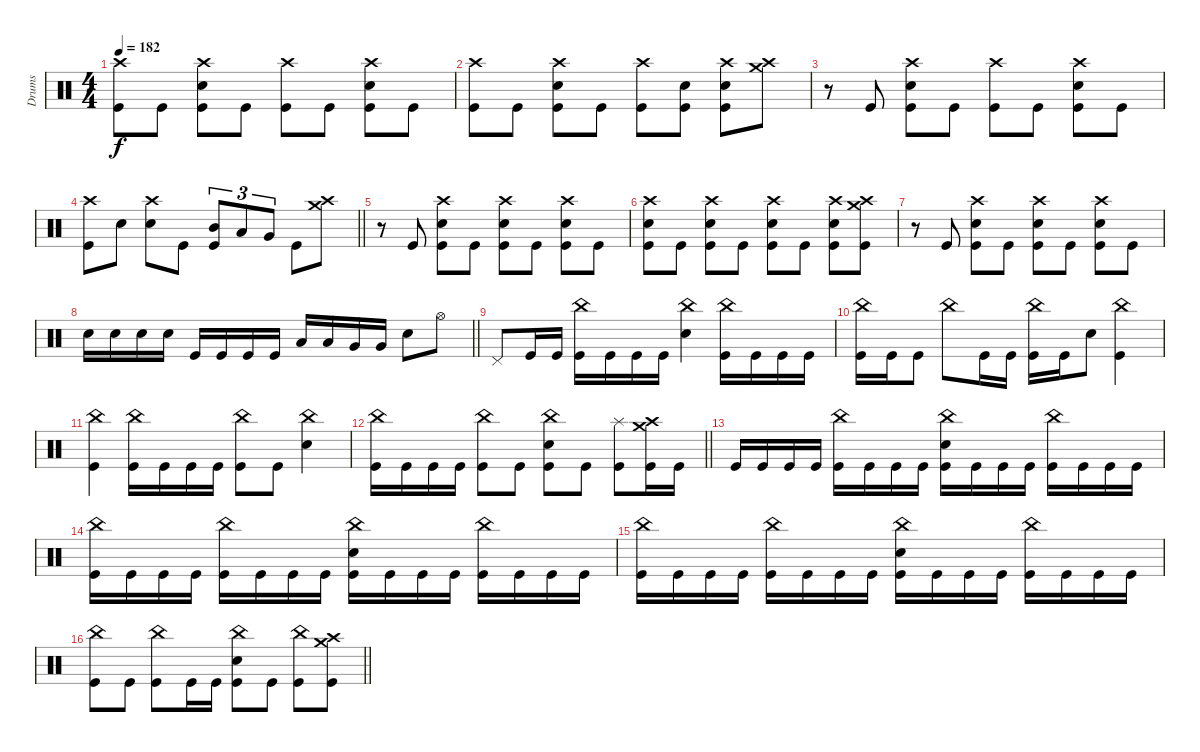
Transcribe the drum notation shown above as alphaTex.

\track ("Drums" "Drums") {instrument percussion}
\staff
\articulation defaults
\ts (4 4)
\tempo 182
\clef neutral
\ks c
("Crash high (hit)" "Kick (hit)").8{dy f} "Kick (hit)".8 ("Crash high (hit)" "Electric Snare (hit)" "Kick (hit)").8 "Kick (hit)".8 ("Crash high (hit)" "Kick (hit)").8 "Kick (hit)".8 ("Crash high (hit)" "Electric Snare (hit)" "Kick (hit)").8 "Kick (hit)".8 |
("Crash high (hit)" "Kick (hit)").8 "Kick (hit)".8 ("Crash high (hit)" "Electric Snare (hit)" "Kick (hit)").8 "Kick (hit)".8 ("Crash high (hit)" "Kick (hit)").8 ("Electric Snare (hit)" "Kick (hit)").8 ("Crash high (hit)" "Electric Snare (hit)" "Kick (hit)").8 ("Crash high (hit)" "Crash medium (hit)").8 |
r.8 "Kick (hit)".8 ("Crash high (hit)" "Electric Snare (hit)" "Kick (hit)").8 "Kick (hit)".8 ("Crash high (hit)" "Kick (hit)").8 "Kick (hit)".8 ("Crash high (hit)" "Electric Snare (hit)" "Kick (hit)").8 "Kick (hit)".8 |
\barLineRight lightlight
("Crash high (hit)" "Kick (hit)").8 "Electric Snare (hit)".8 ("Crash high (hit)" "Electric Snare (hit)").8 "Kick (hit)".8 ("Mid Tom (hit)" "Kick (hit)").8{tu (3 2)} "Low Tom (hit)".8{tu (3 2)} "Very Low Tom (hit)".8{tu (3 2)} "Kick (hit)".8 ("Crash high (hit)" "Crash medium (hit)").8 |
r.8 "Kick (hit)".8 ("Crash high (hit)" "Electric Snare (hit)" "Kick (hit)").8 "Kick (hit)".8 ("Crash high (hit)" "Electric Snare (hit)" "Kick (hit)").8 "Kick (hit)".8 ("Crash high (hit)" "Electric Snare (hit)" "Kick (hit)").8 "Kick (hit)".8 |
("Crash high (hit)" "Electric Snare (hit)" "Kick (hit)").8 "Kick (hit)".8 ("Crash high (hit)" "Electric Snare (hit)" "Kick (hit)").8 "Kick (hit)".8 ("Crash high (hit)" "Electric Snare (hit)" "Kick (hit)").8 "Kick (hit)".8 ("Crash high (hit)" "Electric Snare (hit)" "Kick (hit)").8 ("Crash high (hit)" "Crash medium (hit)" "Kick (hit)").8 |
r.8 "Kick (hit)".8 ("Crash high (hit)" "Electric Snare (hit)" "Kick (hit)").8 "Kick (hit)".8 ("Crash high (hit)" "Electric Snare (hit)" "Kick (hit)").8 "Kick (hit)".8 ("Crash high (hit)" "Electric Snare (hit)" "Kick (hit)").8 "Kick (hit)".8 |
\barLineRight lightlight "Electric Snare (hit)".16 "Electric Snare (hit)".16 "Electric Snare (hit)".16 "Electric Snare (hit)".16 "Kick (hit)".16 "Kick (hit)".16 "Kick (hit)".16 "Kick (hit)".16 "Low Tom (hit)".16 "Low Tom (hit)".16 "Very Low Tom (hit)".16 "Very Low Tom (hit)".16 "Electric Snare (hit)".8 "Hi-Hat (open)".8
|
\section ("" "")
"Pedal Hi-Hat (hit)".8 "Kick (hit)".16 "Kick (hit)".16 ("China (hit)" "Kick (hit)").16 "Kick (hit)".16 "Kick (hit)".16 "Kick (hit)".16 ("China (hit)" "Electric Snare (hit)").4 ("China (hit)" "Kick (hit)").16 "Kick (hit)".16 "Kick (hit)".16 "Kick (hit)".16 |
("China (hit)" "Kick (hit)").16 "Kick (hit)".16 "Kick (hit)".8 "China (hit)".8 "Kick (hit)".16 "Kick (hit)".16 ("China (hit)" "Kick (hit)").16 "Kick (hit)".16 "Electric Snare (hit)".8 ("China (hit)" "Kick (hit)").4 |
("China (hit)" "Kick (hit)").4 ("China (hit)" "Kick (hit)").16 "Kick (hit)".16 "Kick (hit)".16 "Kick (hit)".16 ("China (hit)" "Kick (hit)").8 "Kick (hit)".8 ("China (hit)" "Electric Snare (hit)").4 |
\barLineRight lightlight
("China (hit)" "Kick (hit)").16 "Kick (hit)".16 "Kick (hit)".16 "Kick (hit)".16 ("China (hit)" "Kick (hit)").8 "Kick (hit)".8 ("China (hit)" "Electric Snare (hit)" "Kick (hit)").8 "Kick (hit)".8 ("Splash (hit)" "Kick (hit)").8 ("Crash high (hit)" "Crash medium (hit)" "Kick (hit)").16 "Kick (hit)".16 |
"Kick (hit)".16 "Kick (hit)".16 "Kick (hit)".16 "Kick (hit)".16 ("China (hit)" "Kick (hit)").16 "Kick (hit)".16 "Kick (hit)".16 "Kick (hit)".16 ("China (hit)" "Electric Snare (hit)" "Kick (hit)").16 "Kick (hit)".16 "Kick (hit)".16 "Kick (hit)".16 ("China (hit)" "Kick (hit)").16 "Kick (hit)".16 "Kick (hit)".16 "Kick (hit)".16 |
("China (hit)" "Kick (hit)").16 "Kick (hit)".16 "Kick (hit)".16 "Kick (hit)".16 ("China (hit)" "Kick (hit)").16 "Kick (hit)".16 "Kick (hit)".16 "Kick (hit)".16 ("China (hit)" "Electric Snare (hit)" "Kick (hit)").16 "Kick (hit)".16 "Kick (hit)".16 "Kick (hit)".16 ("China (hit)" "Kick (hit)").16 "Kick (hit)".16 "Kick (hit)".16 "Kick (hit)".16 |
("China (hit)" "Kick (hit)").16 "Kick (hit)".16 "Kick (hit)".16 "Kick (hit)".16 ("China (hit)" "Kick (hit)").16 "Kick (hit)".16 "Kick (hit)".16 "Kick (hit)".16 ("China (hit)" "Electric Snare (hit)" "Kick (hit)").16 "Kick (hit)".16 "Kick (hit)".16 "Kick (hit)".16 ("China (hit)" "Kick (hit)").16 "Kick (hit)".16 "Kick (hit)".16 "Kick (hit)".16 |
\barLineRight lightlight
("China (hit)" "Kick (hit)").8 "Kick (hit)".8 ("China (hit)" "Kick (hit)").8 "Kick (hit)".16 "Kick (hit)".16 ("China (hit)" "Electric Snare (hit)" "Kick (hit)").8 "Kick (hit)".8 ("China (hit)" "Kick (hit)").8 ("Crash high (hit)" "Crash medium (hit)" "Kick (hit)").8
